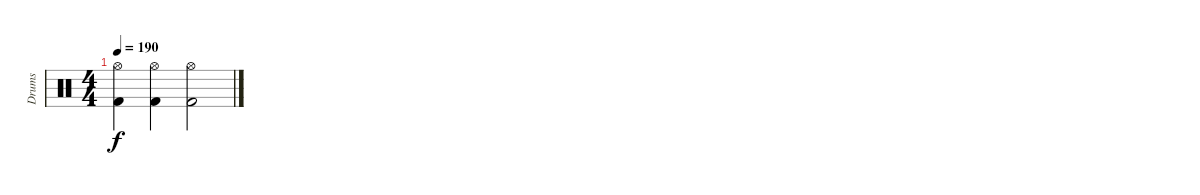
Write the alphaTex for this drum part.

\track ("Drums" "Drums") {instrument percussion}
\staff {score}
\articulation defaults
\ts (4 4)
\tempo 190
\clef neutral
\ks c
("Kick (hit) 2" "Hi-Hat (open)").4{dy f} ("Kick (hit) 2" "Hi-Hat (open)").4 ("Kick (hit) 2" "Hi-Hat (open)").2
